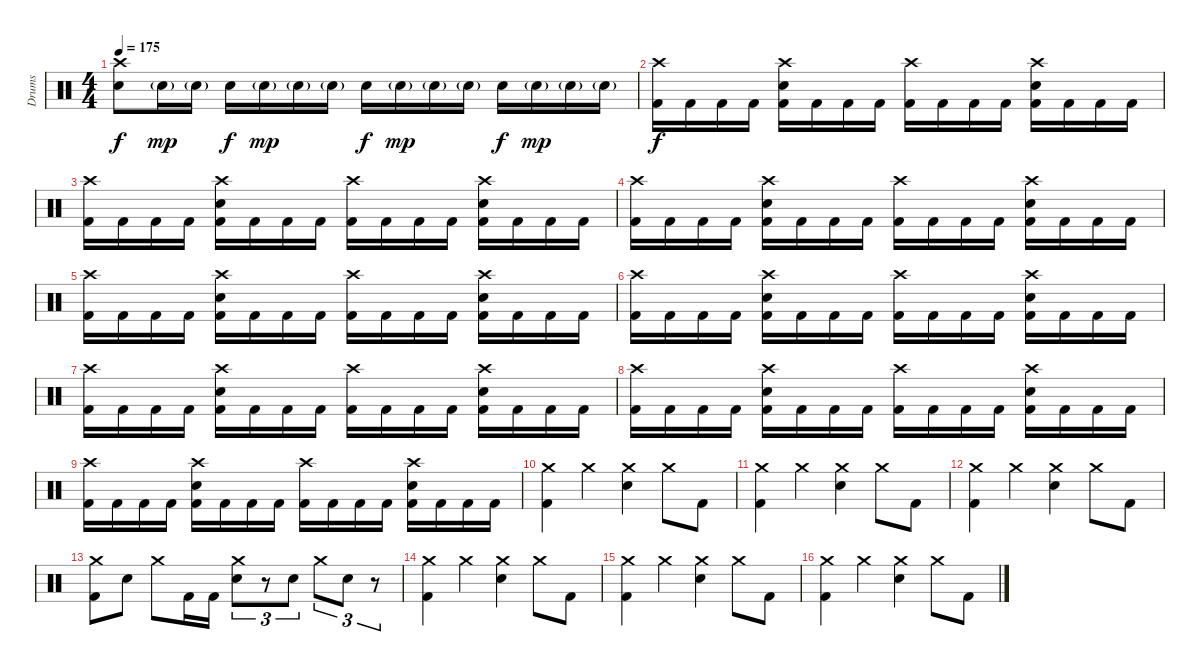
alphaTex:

\track ("Drums" "Drums") {instrument percussion}
\staff {score}
\articulation defaults
\ts (4 4)
\tempo 175
\clef neutral
\ks c
("Crash high (hit)" "Electric Snare (hit)").8{dy f} "Electric Snare (hit)"{g}.16{dy mp} "Electric Snare (hit)"{g}.16 "Electric Snare (hit)".16{dy f} "Electric Snare (hit)"{g}.16{dy mp} "Electric Snare (hit)"{g}.16 "Electric Snare (hit)"{g}.16 "Electric Snare (hit)".16{dy f} "Electric Snare (hit)"{g}.16{dy mp} "Electric Snare (hit)"{g}.16 "Electric Snare (hit)"{g}.16 "Electric Snare (hit)".16{dy f} "Electric Snare (hit)"{g}.16{dy mp} "Electric Snare (hit)"{g}.16 "Electric Snare (hit)"{g}.16 |
("Crash high (hit)" "Kick (hit) 2").16{dy f} "Kick (hit) 2".16 "Kick (hit) 2".16 "Kick (hit) 2".16 ("Crash high (hit)" "Electric Snare (hit)" "Kick (hit) 2").16 "Kick (hit) 2".16 "Kick (hit) 2".16 "Kick (hit) 2".16 ("Crash high (hit)" "Kick (hit) 2").16 "Kick (hit) 2".16 "Kick (hit) 2".16 "Kick (hit) 2".16 ("Crash high (hit)" "Electric Snare (hit)" "Kick (hit) 2").16 "Kick (hit) 2".16 "Kick (hit) 2".16 "Kick (hit) 2".16 |
("Crash high (hit)" "Kick (hit) 2").16 "Kick (hit) 2".16 "Kick (hit) 2".16 "Kick (hit) 2".16 ("Crash high (hit)" "Electric Snare (hit)" "Kick (hit) 2").16 "Kick (hit) 2".16 "Kick (hit) 2".16 "Kick (hit) 2".16 ("Crash high (hit)" "Kick (hit) 2").16 "Kick (hit) 2".16 "Kick (hit) 2".16 "Kick (hit) 2".16 ("Crash high (hit)" "Electric Snare (hit)" "Kick (hit) 2").16 "Kick (hit) 2".16 "Kick (hit) 2".16 "Kick (hit) 2".16 |
("Crash high (hit)" "Kick (hit) 2").16 "Kick (hit) 2".16 "Kick (hit) 2".16 "Kick (hit) 2".16 ("Crash high (hit)" "Electric Snare (hit)" "Kick (hit) 2").16 "Kick (hit) 2".16 "Kick (hit) 2".16 "Kick (hit) 2".16 ("Crash high (hit)" "Kick (hit) 2").16 "Kick (hit) 2".16 "Kick (hit) 2".16 "Kick (hit) 2".16 ("Crash high (hit)" "Electric Snare (hit)" "Kick (hit) 2").16 "Kick (hit) 2".16 "Kick (hit) 2".16 "Kick (hit) 2".16 |
("Crash high (hit)" "Kick (hit) 2").16 "Kick (hit) 2".16 "Kick (hit) 2".16 "Kick (hit) 2".16 ("Crash high (hit)" "Electric Snare (hit)" "Kick (hit) 2").16 "Kick (hit) 2".16 "Kick (hit) 2".16 "Kick (hit) 2".16 ("Crash high (hit)" "Kick (hit) 2").16 "Kick (hit) 2".16 "Kick (hit) 2".16 "Kick (hit) 2".16 ("Crash high (hit)" "Electric Snare (hit)" "Kick (hit) 2").16 "Kick (hit) 2".16 "Kick (hit) 2".16 "Kick (hit) 2".16 |
("Crash high (hit)" "Kick (hit) 2").16 "Kick (hit) 2".16 "Kick (hit) 2".16 "Kick (hit) 2".16 ("Crash high (hit)" "Electric Snare (hit)" "Kick (hit) 2").16 "Kick (hit) 2".16 "Kick (hit) 2".16 "Kick (hit) 2".16 ("Crash high (hit)" "Kick (hit) 2").16 "Kick (hit) 2".16 "Kick (hit) 2".16 "Kick (hit) 2".16 ("Crash high (hit)" "Electric Snare (hit)" "Kick (hit) 2").16 "Kick (hit) 2".16 "Kick (hit) 2".16 "Kick (hit) 2".16 |
("Crash high (hit)" "Kick (hit) 2").16 "Kick (hit) 2".16 "Kick (hit) 2".16 "Kick (hit) 2".16 ("Crash high (hit)" "Electric Snare (hit)" "Kick (hit) 2").16 "Kick (hit) 2".16 "Kick (hit) 2".16 "Kick (hit) 2".16 ("Crash high (hit)" "Kick (hit) 2").16 "Kick (hit) 2".16 "Kick (hit) 2".16 "Kick (hit) 2".16 ("Crash high (hit)" "Electric Snare (hit)" "Kick (hit) 2").16 "Kick (hit) 2".16 "Kick (hit) 2".16 "Kick (hit) 2".16 |
("Crash high (hit)" "Kick (hit) 2").16 "Kick (hit) 2".16 "Kick (hit) 2".16 "Kick (hit) 2".16 ("Crash high (hit)" "Electric Snare (hit)" "Kick (hit) 2").16 "Kick (hit) 2".16 "Kick (hit) 2".16 "Kick (hit) 2".16 ("Crash high (hit)" "Kick (hit) 2").16 "Kick (hit) 2".16 "Kick (hit) 2".16 "Kick (hit) 2".16 ("Crash high (hit)" "Electric Snare (hit)" "Kick (hit) 2").16 "Kick (hit) 2".16 "Kick (hit) 2".16 "Kick (hit) 2".16 |
("Crash high (hit)" "Kick (hit) 2").16 "Kick (hit) 2".16 "Kick (hit) 2".16 "Kick (hit) 2".16 ("Crash high (hit)" "Electric Snare (hit)" "Kick (hit) 2").16 "Kick (hit) 2".16 "Kick (hit) 2".16 "Kick (hit) 2".16 ("Crash high (hit)" "Kick (hit) 2").16 "Kick (hit) 2".16 "Kick (hit) 2".16 "Kick (hit) 2".16 ("Crash high (hit)" "Electric Snare (hit)" "Kick (hit) 2").16 "Kick (hit) 2".16 "Kick (hit) 2".16 "Kick (hit) 2".16 |
("Crash medium (hit)" "Kick (hit) 2").4 "Crash medium (hit)".4 ("Crash medium (hit)" "Electric Snare (hit)").4 "Crash medium (hit)".8 "Kick (hit) 2".8 |
("Crash medium (hit)" "Kick (hit) 2").4 "Crash medium (hit)".4 ("Crash medium (hit)" "Electric Snare (hit)").4 "Crash medium (hit)".8 "Kick (hit) 2".8 |
("Crash medium (hit)" "Kick (hit) 2").4 "Crash medium (hit)".4 ("Crash medium (hit)" "Electric Snare (hit)").4 "Crash medium (hit)".8 "Kick (hit) 2".8 |
("Crash medium (hit)" "Kick (hit) 2").8 "Electric Snare (hit)".8 "Crash medium (hit)".8 "Kick (hit) 2".16 "Kick (hit) 2".16 ("Crash medium (hit)" "Electric Snare (hit)").8{tu (3 2)} r.8{tu (3 2)} "Electric Snare (hit)".8{tu (3 2)} "Crash medium (hit)".8{tu (3 2)} "Electric Snare (hit)".8{tu (3 2)} r.8{tu (3 2)} |
("Crash medium (hit)" "Kick (hit) 2").4 "Crash medium (hit)".4 ("Crash medium (hit)" "Electric Snare (hit)").4 "Crash medium (hit)".8 "Kick (hit) 2".8 |
("Crash medium (hit)" "Kick (hit) 2").4 "Crash medium (hit)".4 ("Crash medium (hit)" "Electric Snare (hit)").4 "Crash medium (hit)".8 "Kick (hit) 2".8 |
("Crash medium (hit)" "Kick (hit) 2").4 "Crash medium (hit)".4 ("Crash medium (hit)" "Electric Snare (hit)").4 "Crash medium (hit)".8 "Kick (hit) 2".8
